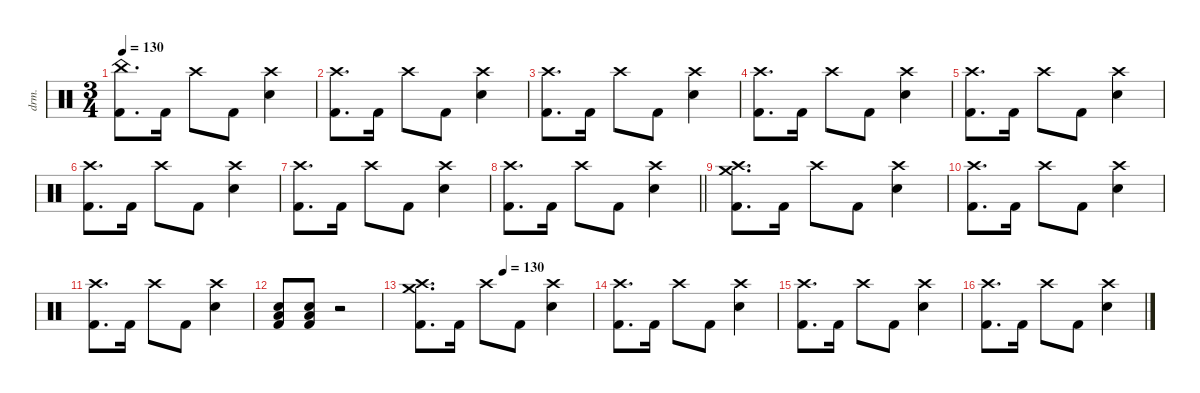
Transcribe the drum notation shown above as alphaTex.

\defaultSystemsLayout 4
\hideDynamics
\bracketExtendMode nobrackets
\otherSystemsTrackNameOrientation horizontal
\track ("Percussion" "drm.") {instrument percussion}
\staff {score}
\articulation defaults
\ts (3 4)
\tempo 130
\clef neutral
\ks c
("China (hit)" "Kick (hit) 2").8{d dy f beam Down} "Kick (hit) 2".16{beam Down} "Crash high (hit)".8{beam Down} "Kick (hit) 2".8{beam Down} ("Crash high (hit)" "Snare (hit) 2").4{beam Down} |
("Crash high (hit)" "Kick (hit) 2").8{d beam Down} "Kick (hit) 2".16{beam Down} "Crash high (hit)".8{beam Down} "Kick (hit) 2".8{beam Down} ("Crash high (hit)" "Snare (hit) 2").4{beam Down} |
("Crash high (hit)" "Kick (hit) 2").8{d beam Down} "Kick (hit) 2".16{beam Down} "Crash high (hit)".8{beam Down} "Kick (hit) 2".8{beam Down} ("Crash high (hit)" "Snare (hit) 2").4{beam Down} |
("Crash high (hit)" "Kick (hit) 2").8{d beam Down} "Kick (hit) 2".16{beam Down} "Crash high (hit)".8{beam Down} "Kick (hit) 2".8{beam Down} ("Crash high (hit)" "Snare (hit) 2").4{beam Down} |
("Crash high (hit)" "Kick (hit) 2").8{d beam Down} "Kick (hit) 2".16{beam Down} "Crash high (hit)".8{beam Down} "Kick (hit) 2".8{beam Down} ("Crash high (hit)" "Snare (hit) 2").4{beam Down} |
("Crash high (hit)" "Kick (hit) 2").8{d beam Down} "Kick (hit) 2".16{beam Down} "Crash high (hit)".8{beam Down} "Kick (hit) 2".8{beam Down} ("Crash high (hit)" "Snare (hit) 2").4{beam Down} |
("Crash high (hit)" "Kick (hit) 2").8{d beam Down} "Kick (hit) 2".16{beam Down} "Crash high (hit)".8{beam Down} "Kick (hit) 2".8{beam Down} ("Crash high (hit)" "Snare (hit) 2").4{beam Down} |
\barLineRight lightlight
("Crash high (hit)" "Kick (hit) 2").8{d beam Down} "Kick (hit) 2".16{beam Down} "Crash high (hit)".8{beam Down} "Kick (hit) 2".8{beam Down} ("Crash high (hit)" "Snare (hit) 2").4{beam Down} |
("Crash medium (hit)" "Crash high (hit)" "Kick (hit) 2").8{d beam Down} "Kick (hit) 2".16{beam Down} "Crash high (hit)".8{beam Down} "Kick (hit) 2".8{beam Down} ("Crash high (hit)" "Snare (hit) 2").4{beam Down} |
("Crash high (hit)" "Kick (hit) 2").8{d beam Down} "Kick (hit) 2".16{beam Down} "Crash high (hit)".8{beam Down} "Kick (hit) 2".8{beam Down} ("Crash high (hit)" "Snare (hit) 2").4{beam Down} |
("Crash high (hit)" "Kick (hit) 2").8{d beam Down} "Kick (hit) 2".16{beam Down} "Crash high (hit)".8{beam Down} "Kick (hit) 2".8{beam Down} ("Crash high (hit)" "Snare (hit) 2").4{beam Down} |
("Low Floor Tom (hit)" "Snare (hit) 2" "Kick (hit) 2").8{beam Up} ("Low Floor Tom (hit)" "Snare (hit) 2" "Kick (hit) 2").8{beam Up} r.2{beam Up} |
\tempo (130 0.5)
("Crash medium (hit)" "Crash high (hit)" "Kick (hit) 2").8{d beam Down} "Kick (hit) 2".16{beam Down} "Crash high (hit)".8{beam Down} "Kick (hit) 2".8{beam Down} ("Crash high (hit)" "Snare (hit) 2").4{beam Down} |
("Crash high (hit)" "Kick (hit) 2").8{d beam Down} "Kick (hit) 2".16{beam Down} "Crash high (hit)".8{beam Down} "Kick (hit) 2".8{beam Down} ("Crash high (hit)" "Snare (hit) 2").4{beam Down} |
("Crash high (hit)" "Kick (hit) 2").8{d beam Down} "Kick (hit) 2".16{beam Down} "Crash high (hit)".8{beam Down} "Kick (hit) 2".8{beam Down} ("Crash high (hit)" "Snare (hit) 2").4{beam Down} |
("Crash high (hit)" "Kick (hit) 2").8{d beam Down} "Kick (hit) 2".16{beam Down} "Crash high (hit)".8{beam Down} "Kick (hit) 2".8{beam Down} ("Crash high (hit)" "Snare (hit) 2").4{beam Down}
